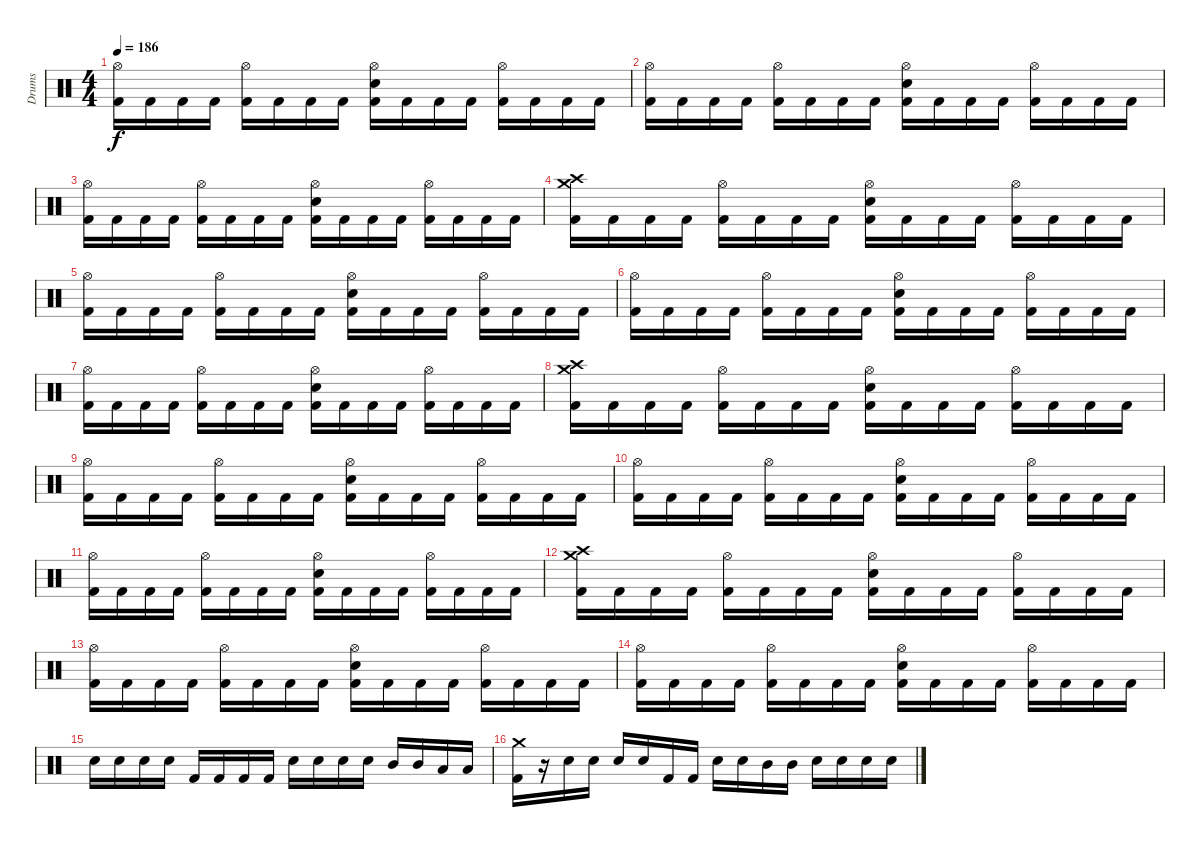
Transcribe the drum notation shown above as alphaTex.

\track ("Drums" "Drums") {instrument percussion}
\staff {score}
\articulation defaults
\ts (4 4)
\tempo 186
\clef neutral
\ks c
("Hi-Hat (open)" "Kick (hit) 2").16{dy f} "Kick (hit) 2".16 "Kick (hit) 2".16 "Kick (hit) 2".16 ("Hi-Hat (open)" "Kick (hit) 2").16 "Kick (hit) 2".16 "Kick (hit) 2".16 "Kick (hit) 2".16 ("Hi-Hat (open)" "Snare (hit) 2" "Kick (hit) 2").16 "Kick (hit) 2".16 "Kick (hit) 2".16 "Kick (hit) 2".16 ("Hi-Hat (open)" "Kick (hit) 2").16 "Kick (hit) 2".16 "Kick (hit) 2".16 "Kick (hit) 2".16 |
("Hi-Hat (open)" "Kick (hit) 2").16 "Kick (hit) 2".16 "Kick (hit) 2".16 "Kick (hit) 2".16 ("Hi-Hat (open)" "Kick (hit) 2").16 "Kick (hit) 2".16 "Kick (hit) 2".16 "Kick (hit) 2".16 ("Hi-Hat (open)" "Snare (hit) 2" "Kick (hit) 2").16 "Kick (hit) 2".16 "Kick (hit) 2".16 "Kick (hit) 2".16 ("Hi-Hat (open)" "Kick (hit) 2").16 "Kick (hit) 2".16 "Kick (hit) 2".16 "Kick (hit) 2".16 |
("Hi-Hat (open)" "Kick (hit) 2").16 "Kick (hit) 2".16 "Kick (hit) 2".16 "Kick (hit) 2".16 ("Hi-Hat (open)" "Kick (hit) 2").16 "Kick (hit) 2".16 "Kick (hit) 2".16 "Kick (hit) 2".16 ("Hi-Hat (open)" "Snare (hit) 2" "Kick (hit) 2").16 "Kick (hit) 2".16 "Kick (hit) 2".16 "Kick (hit) 2".16 ("Hi-Hat (open)" "Kick (hit) 2").16 "Kick (hit) 2".16 "Kick (hit) 2".16 "Kick (hit) 2".16 |
("Crash high (hit)" "Crash medium (hit)" "Kick (hit) 2").16 "Kick (hit) 2".16 "Kick (hit) 2".16 "Kick (hit) 2".16 ("Hi-Hat (open)" "Kick (hit) 2").16 "Kick (hit) 2".16 "Kick (hit) 2".16 "Kick (hit) 2".16 ("Hi-Hat (open)" "Snare (hit) 2" "Kick (hit) 2").16 "Kick (hit) 2".16 "Kick (hit) 2".16 "Kick (hit) 2".16 ("Hi-Hat (open)" "Kick (hit) 2").16 "Kick (hit) 2".16 "Kick (hit) 2".16 "Kick (hit) 2".16 |
("Hi-Hat (open)" "Kick (hit) 2").16 "Kick (hit) 2".16 "Kick (hit) 2".16 "Kick (hit) 2".16 ("Hi-Hat (open)" "Kick (hit) 2").16 "Kick (hit) 2".16 "Kick (hit) 2".16 "Kick (hit) 2".16 ("Hi-Hat (open)" "Snare (hit) 2" "Kick (hit) 2").16 "Kick (hit) 2".16 "Kick (hit) 2".16 "Kick (hit) 2".16 ("Hi-Hat (open)" "Kick (hit) 2").16 "Kick (hit) 2".16 "Kick (hit) 2".16 "Kick (hit) 2".16 |
("Hi-Hat (open)" "Kick (hit) 2").16 "Kick (hit) 2".16 "Kick (hit) 2".16 "Kick (hit) 2".16 ("Hi-Hat (open)" "Kick (hit) 2").16 "Kick (hit) 2".16 "Kick (hit) 2".16 "Kick (hit) 2".16 ("Hi-Hat (open)" "Snare (hit) 2" "Kick (hit) 2").16 "Kick (hit) 2".16 "Kick (hit) 2".16 "Kick (hit) 2".16 ("Hi-Hat (open)" "Kick (hit) 2").16 "Kick (hit) 2".16 "Kick (hit) 2".16 "Kick (hit) 2".16 |
("Hi-Hat (open)" "Kick (hit) 2").16 "Kick (hit) 2".16 "Kick (hit) 2".16 "Kick (hit) 2".16 ("Hi-Hat (open)" "Kick (hit) 2").16 "Kick (hit) 2".16 "Kick (hit) 2".16 "Kick (hit) 2".16 ("Hi-Hat (open)" "Snare (hit) 2" "Kick (hit) 2").16 "Kick (hit) 2".16 "Kick (hit) 2".16 "Kick (hit) 2".16 ("Hi-Hat (open)" "Kick (hit) 2").16 "Kick (hit) 2".16 "Kick (hit) 2".16 "Kick (hit) 2".16 |
("Crash high (hit)" "Crash medium (hit)" "Kick (hit) 2").16 "Kick (hit) 2".16 "Kick (hit) 2".16 "Kick (hit) 2".16 ("Hi-Hat (open)" "Kick (hit) 2").16 "Kick (hit) 2".16 "Kick (hit) 2".16 "Kick (hit) 2".16 ("Hi-Hat (open)" "Snare (hit) 2" "Kick (hit) 2").16 "Kick (hit) 2".16 "Kick (hit) 2".16 "Kick (hit) 2".16 ("Hi-Hat (open)" "Kick (hit) 2").16 "Kick (hit) 2".16 "Kick (hit) 2".16 "Kick (hit) 2".16 |
("Hi-Hat (open)" "Kick (hit) 2").16 "Kick (hit) 2".16 "Kick (hit) 2".16 "Kick (hit) 2".16 ("Hi-Hat (open)" "Kick (hit) 2").16 "Kick (hit) 2".16 "Kick (hit) 2".16 "Kick (hit) 2".16 ("Hi-Hat (open)" "Snare (hit) 2" "Kick (hit) 2").16 "Kick (hit) 2".16 "Kick (hit) 2".16 "Kick (hit) 2".16 ("Hi-Hat (open)" "Kick (hit) 2").16 "Kick (hit) 2".16 "Kick (hit) 2".16 "Kick (hit) 2".16 |
("Hi-Hat (open)" "Kick (hit) 2").16 "Kick (hit) 2".16 "Kick (hit) 2".16 "Kick (hit) 2".16 ("Hi-Hat (open)" "Kick (hit) 2").16 "Kick (hit) 2".16 "Kick (hit) 2".16 "Kick (hit) 2".16 ("Hi-Hat (open)" "Snare (hit) 2" "Kick (hit) 2").16 "Kick (hit) 2".16 "Kick (hit) 2".16 "Kick (hit) 2".16 ("Hi-Hat (open)" "Kick (hit) 2").16 "Kick (hit) 2".16 "Kick (hit) 2".16 "Kick (hit) 2".16 |
("Hi-Hat (open)" "Kick (hit) 2").16 "Kick (hit) 2".16 "Kick (hit) 2".16 "Kick (hit) 2".16 ("Hi-Hat (open)" "Kick (hit) 2").16 "Kick (hit) 2".16 "Kick (hit) 2".16 "Kick (hit) 2".16 ("Hi-Hat (open)" "Snare (hit) 2" "Kick (hit) 2").16 "Kick (hit) 2".16 "Kick (hit) 2".16 "Kick (hit) 2".16 ("Hi-Hat (open)" "Kick (hit) 2").16 "Kick (hit) 2".16 "Kick (hit) 2".16 "Kick (hit) 2".16 |
("Crash high (hit)" "Crash medium (hit)" "Kick (hit) 2").16 "Kick (hit) 2".16 "Kick (hit) 2".16 "Kick (hit) 2".16 ("Hi-Hat (open)" "Kick (hit) 2").16 "Kick (hit) 2".16 "Kick (hit) 2".16 "Kick (hit) 2".16 ("Hi-Hat (open)" "Snare (hit) 2" "Kick (hit) 2").16 "Kick (hit) 2".16 "Kick (hit) 2".16 "Kick (hit) 2".16 ("Hi-Hat (open)" "Kick (hit) 2").16 "Kick (hit) 2".16 "Kick (hit) 2".16 "Kick (hit) 2".16 |
("Hi-Hat (open)" "Kick (hit) 2").16 "Kick (hit) 2".16 "Kick (hit) 2".16 "Kick (hit) 2".16 ("Hi-Hat (open)" "Kick (hit) 2").16 "Kick (hit) 2".16 "Kick (hit) 2".16 "Kick (hit) 2".16 ("Hi-Hat (open)" "Snare (hit) 2" "Kick (hit) 2").16 "Kick (hit) 2".16 "Kick (hit) 2".16 "Kick (hit) 2".16 ("Hi-Hat (open)" "Kick (hit) 2").16 "Kick (hit) 2".16 "Kick (hit) 2".16 "Kick (hit) 2".16 |
("Hi-Hat (open)" "Kick (hit) 2").16 "Kick (hit) 2".16 "Kick (hit) 2".16 "Kick (hit) 2".16 ("Hi-Hat (open)" "Kick (hit) 2").16 "Kick (hit) 2".16 "Kick (hit) 2".16 "Kick (hit) 2".16 ("Hi-Hat (open)" "Snare (hit) 2" "Kick (hit) 2").16 "Kick (hit) 2".16 "Kick (hit) 2".16 "Kick (hit) 2".16 ("Hi-Hat (open)" "Kick (hit) 2").16 "Kick (hit) 2".16 "Kick (hit) 2".16 "Kick (hit) 2".16 |
"Snare (hit) 2".16 "Snare (hit) 2".16 "Snare (hit) 2".16 "Snare (hit) 2".16 "Kick (hit) 2".16 "Kick (hit) 2".16 "Kick (hit) 2".16 "Kick (hit) 2".16 "Snare (hit) 2".16 "Snare (hit) 2".16 "Snare (hit) 2".16 "Snare (hit) 2".16 "Mid Tom (hit)".16 "Mid Tom (hit)".16 "Low Tom (hit)".16 "Low Tom (hit)".16 |
("Crash medium (hit)" "Kick (hit) 2").16 r.16 "Snare (hit) 2".16 "Snare (hit) 2".16 "Snare (hit) 2".16 "Snare (hit) 2".16 "Kick (hit) 2".16 "Kick (hit) 2".16 "Snare (hit) 2".16 "Snare (hit) 2".16 "Mid Tom (hit)".16 "Mid Tom (hit)".16 "Snare (hit) 2".16 "Snare (hit) 2".16 "Snare (hit) 2".16 "Snare (hit) 2".16
